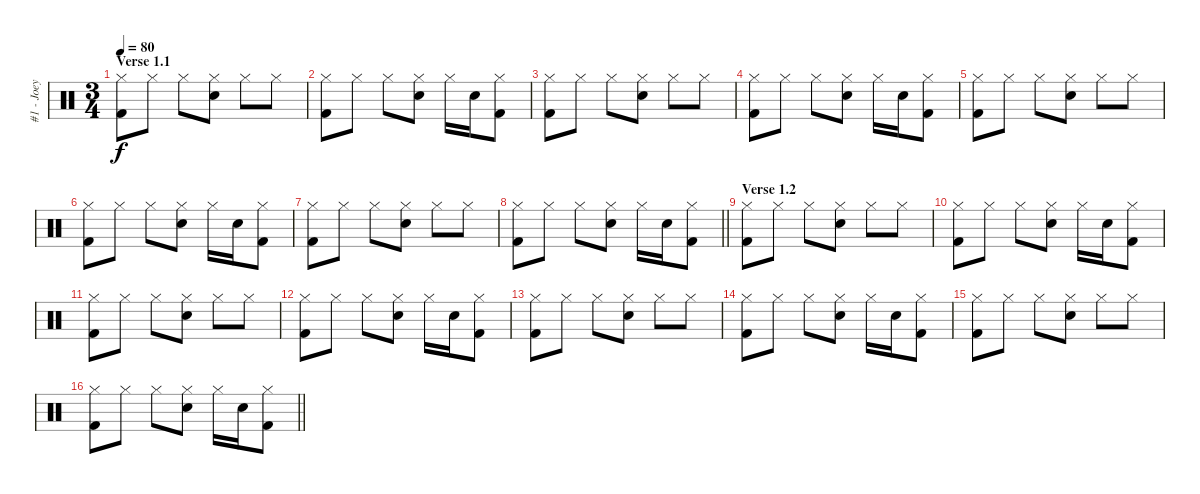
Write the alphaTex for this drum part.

\track ("#1 - Joey Jordison" "#1 - Joey ") {instrument percussion}
\staff {score}
\articulation defaults
\ts (3 4)
\section ("" "Verse 1.1")
\tempo 80
\clef neutral
\ks c
("Hi-Hat (closed)" "Kick (hit) 2").8{dy f} "Hi-Hat (closed)".8 "Hi-Hat (closed)".8 ("Hi-Hat (closed)" "Snare (hit) 2").8 "Hi-Hat (closed)".8 "Hi-Hat (closed)".8 |
("Hi-Hat (closed)" "Kick (hit) 2").8 "Hi-Hat (closed)".8 "Hi-Hat (closed)".8 ("Hi-Hat (closed)" "Snare (hit) 2").8 "Hi-Hat (closed)".16 "Snare (hit) 2".16 ("Hi-Hat (closed)" "Kick (hit) 2").8 |
("Hi-Hat (closed)" "Kick (hit) 2").8 "Hi-Hat (closed)".8 "Hi-Hat (closed)".8 ("Hi-Hat (closed)" "Snare (hit) 2").8 "Hi-Hat (closed)".8 "Hi-Hat (closed)".8 |
("Hi-Hat (closed)" "Kick (hit) 2").8 "Hi-Hat (closed)".8 "Hi-Hat (closed)".8 ("Hi-Hat (closed)" "Snare (hit) 2").8 "Hi-Hat (closed)".16 "Snare (hit) 2".16 ("Hi-Hat (closed)" "Kick (hit) 2").8 |
("Hi-Hat (closed)" "Kick (hit) 2").8 "Hi-Hat (closed)".8 "Hi-Hat (closed)".8 ("Hi-Hat (closed)" "Snare (hit) 2").8 "Hi-Hat (closed)".8 "Hi-Hat (closed)".8 |
("Hi-Hat (closed)" "Kick (hit) 2").8 "Hi-Hat (closed)".8 "Hi-Hat (closed)".8 ("Hi-Hat (closed)" "Snare (hit) 2").8 "Hi-Hat (closed)".16 "Snare (hit) 2".16 ("Hi-Hat (closed)" "Kick (hit) 2").8 |
("Hi-Hat (closed)" "Kick (hit) 2").8 "Hi-Hat (closed)".8 "Hi-Hat (closed)".8 ("Hi-Hat (closed)" "Snare (hit) 2").8 "Hi-Hat (closed)".8 "Hi-Hat (closed)".8 |
\barLineRight lightlight
("Hi-Hat (closed)" "Kick (hit) 2").8 "Hi-Hat (closed)".8 "Hi-Hat (closed)".8 ("Hi-Hat (closed)" "Snare (hit) 2").8 "Hi-Hat (closed)".16 "Snare (hit) 2".16 ("Hi-Hat (closed)" "Kick (hit) 2").8 |
\section ("" "Verse 1.2")
("Hi-Hat (closed)" "Kick (hit) 2").8 "Hi-Hat (closed)".8 "Hi-Hat (closed)".8 ("Hi-Hat (closed)" "Snare (hit) 2").8 "Hi-Hat (closed)".8 "Hi-Hat (closed)".8 |
("Hi-Hat (closed)" "Kick (hit) 2").8 "Hi-Hat (closed)".8 "Hi-Hat (closed)".8 ("Hi-Hat (closed)" "Snare (hit) 2").8 "Hi-Hat (closed)".16 "Snare (hit) 2".16 ("Hi-Hat (closed)" "Kick (hit) 2").8 |
("Hi-Hat (closed)" "Kick (hit) 2").8 "Hi-Hat (closed)".8 "Hi-Hat (closed)".8 ("Hi-Hat (closed)" "Snare (hit) 2").8 "Hi-Hat (closed)".8 "Hi-Hat (closed)".8 |
("Hi-Hat (closed)" "Kick (hit) 2").8 "Hi-Hat (closed)".8 "Hi-Hat (closed)".8 ("Hi-Hat (closed)" "Snare (hit) 2").8 "Hi-Hat (closed)".16 "Snare (hit) 2".16 ("Hi-Hat (closed)" "Kick (hit) 2").8 |
("Hi-Hat (closed)" "Kick (hit) 2").8 "Hi-Hat (closed)".8 "Hi-Hat (closed)".8 ("Hi-Hat (closed)" "Snare (hit) 2").8 "Hi-Hat (closed)".8 "Hi-Hat (closed)".8 |
("Hi-Hat (closed)" "Kick (hit) 2").8 "Hi-Hat (closed)".8 "Hi-Hat (closed)".8 ("Hi-Hat (closed)" "Snare (hit) 2").8 "Hi-Hat (closed)".16 "Snare (hit) 2".16 ("Hi-Hat (closed)" "Kick (hit) 2").8 |
("Hi-Hat (closed)" "Kick (hit) 2").8 "Hi-Hat (closed)".8 "Hi-Hat (closed)".8 ("Hi-Hat (closed)" "Snare (hit) 2").8 "Hi-Hat (closed)".8 "Hi-Hat (closed)".8 |
\barLineRight lightlight
("Hi-Hat (closed)" "Kick (hit) 2").8 "Hi-Hat (closed)".8 "Hi-Hat (closed)".8 ("Hi-Hat (closed)" "Snare (hit) 2").8 "Hi-Hat (closed)".16 "Snare (hit) 2".16 ("Hi-Hat (closed)" "Kick (hit) 2").8
